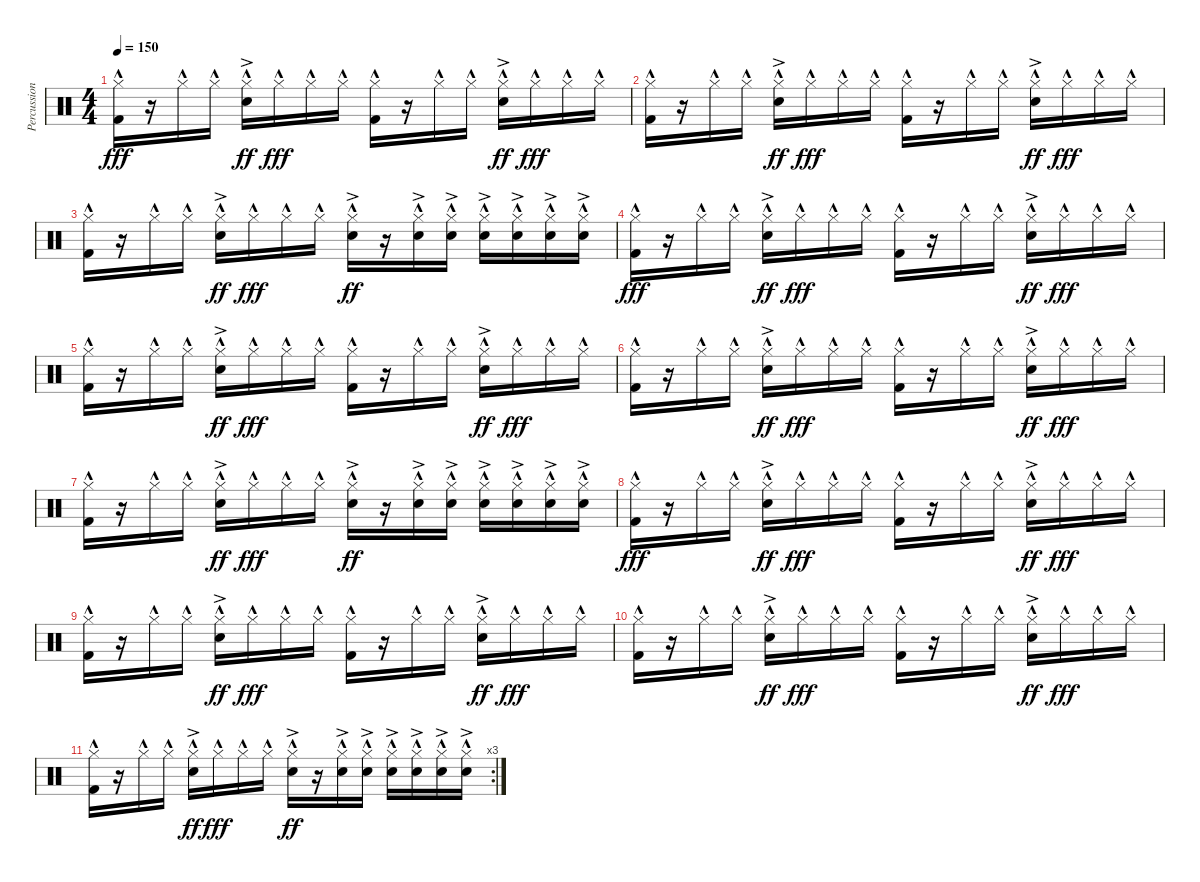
\track ("Percussion" "Percussion") {instrument percussion}
\staff {score}
\articulation defaults
\ts (4 4)
\tempo 150
\clef neutral
\ks c
("Hi-Hat (closed)"{hac} "Kick (hit) 2"{hac}).16{dy fff} r.16 "Hi-Hat (closed)"{hac}.16 "Hi-Hat (closed)"{hac}.16 ("Hi-Hat (closed)"{hac} "Snare (hit) 2"{ac}).16{dy ff} "Hi-Hat (closed)"{hac}.16{dy fff} "Hi-Hat (closed)"{hac}.16 "Hi-Hat (closed)"{hac}.16 ("Hi-Hat (closed)"{hac} "Kick (hit) 2"{hac}).16 r.16 "Hi-Hat (closed)"{hac}.16 "Hi-Hat (closed)"{hac}.16 ("Hi-Hat (closed)"{hac} "Snare (hit) 2"{ac}).16{dy ff} "Hi-Hat (closed)"{hac}.16{dy fff} "Hi-Hat (closed)"{hac}.16 "Hi-Hat (closed)"{hac}.16 |
("Hi-Hat (closed)"{hac} "Kick (hit) 2"{hac}).16 r.16 "Hi-Hat (closed)"{hac}.16 "Hi-Hat (closed)"{hac}.16 ("Hi-Hat (closed)"{hac} "Snare (hit) 2"{ac}).16{dy ff} "Hi-Hat (closed)"{hac}.16{dy fff} "Hi-Hat (closed)"{hac}.16 "Hi-Hat (closed)"{hac}.16 ("Hi-Hat (closed)"{hac} "Kick (hit) 2"{hac}).16 r.16 "Hi-Hat (closed)"{hac}.16 "Hi-Hat (closed)"{hac}.16 ("Hi-Hat (closed)"{hac} "Snare (hit) 2"{ac}).16{dy ff} "Hi-Hat (closed)"{hac}.16{dy fff} "Hi-Hat (closed)"{hac}.16 "Hi-Hat (closed)"{hac}.16 |
("Hi-Hat (closed)"{hac} "Kick (hit) 2"{hac}).16 r.16 "Hi-Hat (closed)"{hac}.16 "Hi-Hat (closed)"{hac}.16 ("Hi-Hat (closed)"{hac} "Snare (hit) 2"{ac}).16{dy ff} "Hi-Hat (closed)"{hac}.16{dy fff} "Hi-Hat (closed)"{hac}.16 "Hi-Hat (closed)"{hac}.16 ("Hi-Hat (closed)"{hac} "Snare (hit) 2"{ac}).16{dy ff} r.16 ("Hi-Hat (closed)"{hac} "Snare (hit) 2"{ac}).16 ("Hi-Hat (closed)"{hac} "Snare (hit) 2"{ac}).16 ("Hi-Hat (closed)"{hac} "Snare (hit) 2"{ac}).16 ("Hi-Hat (closed)"{hac} "Snare (hit) 2"{ac}).16 ("Hi-Hat (closed)"{hac} "Snare (hit) 2"{ac}).16 ("Hi-Hat (closed)"{hac} "Snare (hit) 2"{ac}).16 |
("Hi-Hat (closed)"{hac} "Kick (hit) 2"{hac}).16{dy fff} r.16 "Hi-Hat (closed)"{hac}.16 "Hi-Hat (closed)"{hac}.16 ("Hi-Hat (closed)"{hac} "Snare (hit) 2"{ac}).16{dy ff} "Hi-Hat (closed)"{hac}.16{dy fff} "Hi-Hat (closed)"{hac}.16 "Hi-Hat (closed)"{hac}.16 ("Hi-Hat (closed)"{hac} "Kick (hit) 2"{hac}).16 r.16 "Hi-Hat (closed)"{hac}.16 "Hi-Hat (closed)"{hac}.16 ("Hi-Hat (closed)"{hac} "Snare (hit) 2"{ac}).16{dy ff} "Hi-Hat (closed)"{hac}.16{dy fff} "Hi-Hat (closed)"{hac}.16 "Hi-Hat (closed)"{hac}.16 |
("Hi-Hat (closed)"{hac} "Kick (hit) 2"{hac}).16 r.16 "Hi-Hat (closed)"{hac}.16 "Hi-Hat (closed)"{hac}.16 ("Hi-Hat (closed)"{hac} "Snare (hit) 2"{ac}).16{dy ff} "Hi-Hat (closed)"{hac}.16{dy fff} "Hi-Hat (closed)"{hac}.16 "Hi-Hat (closed)"{hac}.16 ("Hi-Hat (closed)"{hac} "Kick (hit) 2"{hac}).16 r.16 "Hi-Hat (closed)"{hac}.16 "Hi-Hat (closed)"{hac}.16 ("Hi-Hat (closed)"{hac} "Snare (hit) 2"{ac}).16{dy ff} "Hi-Hat (closed)"{hac}.16{dy fff} "Hi-Hat (closed)"{hac}.16 "Hi-Hat (closed)"{hac}.16 |
("Hi-Hat (closed)"{hac} "Kick (hit) 2"{hac}).16 r.16 "Hi-Hat (closed)"{hac}.16 "Hi-Hat (closed)"{hac}.16 ("Hi-Hat (closed)"{hac} "Snare (hit) 2"{ac}).16{dy ff} "Hi-Hat (closed)"{hac}.16{dy fff} "Hi-Hat (closed)"{hac}.16 "Hi-Hat (closed)"{hac}.16 ("Hi-Hat (closed)"{hac} "Kick (hit) 2"{hac}).16 r.16 "Hi-Hat (closed)"{hac}.16 "Hi-Hat (closed)"{hac}.16 ("Hi-Hat (closed)"{hac} "Snare (hit) 2"{ac}).16{dy ff} "Hi-Hat (closed)"{hac}.16{dy fff} "Hi-Hat (closed)"{hac}.16 "Hi-Hat (closed)"{hac}.16 |
("Hi-Hat (closed)"{hac} "Kick (hit) 2"{hac}).16 r.16 "Hi-Hat (closed)"{hac}.16 "Hi-Hat (closed)"{hac}.16 ("Hi-Hat (closed)"{hac} "Snare (hit) 2"{ac}).16{dy ff} "Hi-Hat (closed)"{hac}.16{dy fff} "Hi-Hat (closed)"{hac}.16 "Hi-Hat (closed)"{hac}.16 ("Hi-Hat (closed)"{hac} "Snare (hit) 2"{ac}).16{dy ff} r.16 ("Hi-Hat (closed)"{hac} "Snare (hit) 2"{ac}).16 ("Hi-Hat (closed)"{hac} "Snare (hit) 2"{ac}).16 ("Hi-Hat (closed)"{hac} "Snare (hit) 2"{ac}).16 ("Hi-Hat (closed)"{hac} "Snare (hit) 2"{ac}).16 ("Hi-Hat (closed)"{hac} "Snare (hit) 2"{ac}).16 ("Hi-Hat (closed)"{hac} "Snare (hit) 2"{ac}).16 |
("Hi-Hat (closed)"{hac} "Kick (hit) 2"{hac}).16{dy fff} r.16 "Hi-Hat (closed)"{hac}.16 "Hi-Hat (closed)"{hac}.16 ("Hi-Hat (closed)"{hac} "Snare (hit) 2"{ac}).16{dy ff} "Hi-Hat (closed)"{hac}.16{dy fff} "Hi-Hat (closed)"{hac}.16 "Hi-Hat (closed)"{hac}.16 ("Hi-Hat (closed)"{hac} "Kick (hit) 2"{hac}).16 r.16 "Hi-Hat (closed)"{hac}.16 "Hi-Hat (closed)"{hac}.16 ("Hi-Hat (closed)"{hac} "Snare (hit) 2"{ac}).16{dy ff} "Hi-Hat (closed)"{hac}.16{dy fff} "Hi-Hat (closed)"{hac}.16 "Hi-Hat (closed)"{hac}.16 |
("Hi-Hat (closed)"{hac} "Kick (hit) 2"{hac}).16 r.16 "Hi-Hat (closed)"{hac}.16 "Hi-Hat (closed)"{hac}.16 ("Hi-Hat (closed)"{hac} "Snare (hit) 2"{ac}).16{dy ff} "Hi-Hat (closed)"{hac}.16{dy fff} "Hi-Hat (closed)"{hac}.16 "Hi-Hat (closed)"{hac}.16 ("Hi-Hat (closed)"{hac} "Kick (hit) 2"{hac}).16 r.16 "Hi-Hat (closed)"{hac}.16 "Hi-Hat (closed)"{hac}.16 ("Hi-Hat (closed)"{hac} "Snare (hit) 2"{ac}).16{dy ff} "Hi-Hat (closed)"{hac}.16{dy fff} "Hi-Hat (closed)"{hac}.16 "Hi-Hat (closed)"{hac}.16 |
("Hi-Hat (closed)"{hac} "Kick (hit) 2"{hac}).16 r.16 "Hi-Hat (closed)"{hac}.16 "Hi-Hat (closed)"{hac}.16 ("Hi-Hat (closed)"{hac} "Snare (hit) 2"{ac}).16{dy ff} "Hi-Hat (closed)"{hac}.16{dy fff} "Hi-Hat (closed)"{hac}.16 "Hi-Hat (closed)"{hac}.16 ("Hi-Hat (closed)"{hac} "Kick (hit) 2"{hac}).16 r.16 "Hi-Hat (closed)"{hac}.16 "Hi-Hat (closed)"{hac}.16 ("Hi-Hat (closed)"{hac} "Snare (hit) 2"{ac}).16{dy ff} "Hi-Hat (closed)"{hac}.16{dy fff} "Hi-Hat (closed)"{hac}.16 "Hi-Hat (closed)"{hac}.16 |
\rc 3
("Hi-Hat (closed)"{hac} "Kick (hit) 2"{hac}).16 r.16 "Hi-Hat (closed)"{hac}.16 "Hi-Hat (closed)"{hac}.16 ("Hi-Hat (closed)"{hac} "Snare (hit) 2"{ac}).16{dy ff} "Hi-Hat (closed)"{hac}.16{dy fff} "Hi-Hat (closed)"{hac}.16 "Hi-Hat (closed)"{hac}.16 ("Hi-Hat (closed)"{hac} "Snare (hit) 2"{ac}).16{dy ff} r.16 ("Hi-Hat (closed)"{hac} "Snare (hit) 2"{ac}).16 ("Hi-Hat (closed)"{hac} "Snare (hit) 2"{ac}).16 ("Hi-Hat (closed)"{hac} "Snare (hit) 2"{ac}).16 ("Hi-Hat (closed)"{hac} "Snare (hit) 2"{ac}).16 ("Hi-Hat (closed)"{hac} "Snare (hit) 2"{ac}).16 ("Hi-Hat (closed)"{hac} "Snare (hit) 2"{ac}).16
